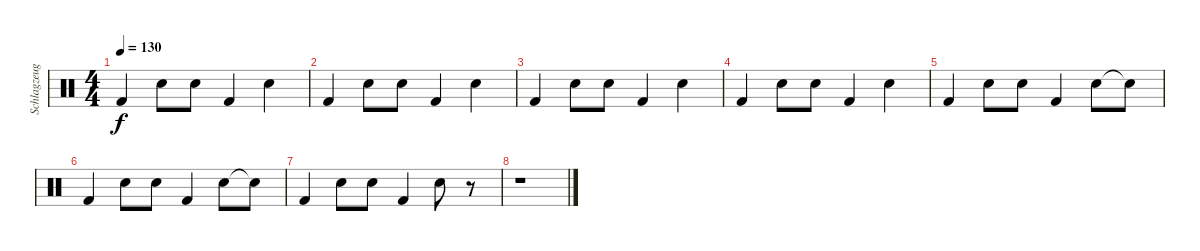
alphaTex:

\track ("Schlagzeug" "Schlagzeug") {instrument percussion}
\staff {score}
\articulation defaults
\ts (4 4)
\tempo 130
\clef neutral
\ks c "Kick (hit) 2".4{dy f} "Snare (hit) 2".8 "Snare (hit) 2".8 "Kick (hit) 2".4 "Snare (hit) 2".4
|
"Kick (hit) 2".4 "Snare (hit) 2".8 "Snare (hit) 2".8 "Kick (hit) 2".4 "Snare (hit) 2".4 |
"Kick (hit) 2".4 "Snare (hit) 2".8 "Snare (hit) 2".8 "Kick (hit) 2".4 "Snare (hit) 2".4 |
"Kick (hit) 2".4 "Snare (hit) 2".8 "Snare (hit) 2".8 "Kick (hit) 2".4 "Snare (hit) 2".4 |
"Kick (hit) 2".4 "Snare (hit) 2".8 "Snare (hit) 2".8 "Kick (hit) 2".4 "Snare (hit) 2".8 "Snare (hit)"{t}.8 |
"Kick (hit) 2".4 "Snare (hit) 2".8 "Snare (hit) 2".8 "Kick (hit) 2".4 "Snare (hit) 2".8 "Snare (hit)"{t}.8 |
"Kick (hit) 2".4 "Snare (hit) 2".8 "Snare (hit) 2".8 "Kick (hit) 2".4 "Snare (hit) 2".8 r.8 |
r.1
